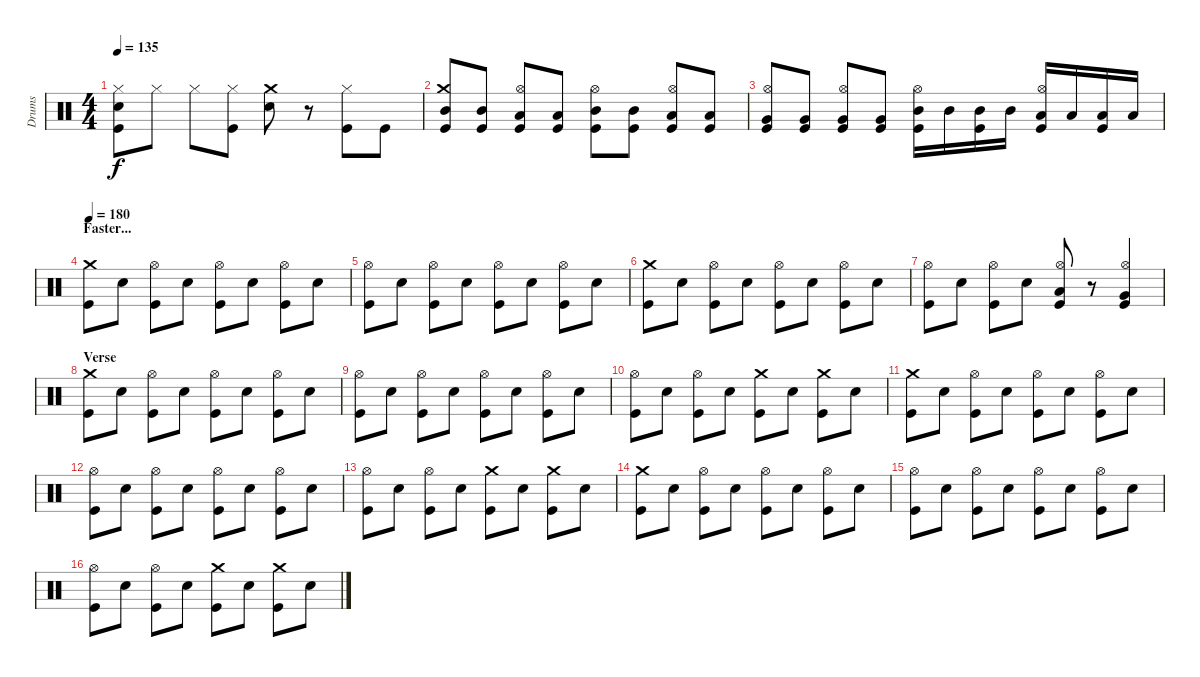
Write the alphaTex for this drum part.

\track ("Drums" "Drums") {instrument percussion}
\staff {score}
\articulation defaults
\ts (4 4)
\tempo 135
\clef neutral
\ks c
("Hi-Hat (closed)" "Snare (hit) 2" "Kick (hit)").8{dy f} "Hi-Hat (closed)".8 "Hi-Hat (closed)".8 ("Hi-Hat (closed)" "Kick (hit)").8 ("Crash medium (hit)" "Snare (hit) 2").8 r.8 ("Hi-Hat (closed)" "Kick (hit)").8 "Kick (hit)".8 |
("Crash medium (hit)" "Mid Tom (hit)" "Kick (hit)").8 ("Mid Tom (hit)" "Kick (hit)").8 ("Hi-Hat (open)" "Low Tom (hit)" "Kick (hit)").8 ("Low Tom (hit)" "Kick (hit)").8 ("Hi-Hat (open)" "Mid Tom (hit)" "Kick (hit)").8 ("Mid Tom (hit)" "Kick (hit)").8 ("Hi-Hat (open)" "Low Tom (hit)" "Kick (hit)").8 ("Low Tom (hit)" "Kick (hit)").8 |
("Hi-Hat (open)" "Very Low Tom (hit)" "Kick (hit)").8 ("Very Low Tom (hit)" "Kick (hit)").8 ("Hi-Hat (open)" "Very Low Tom (hit)" "Kick (hit)").8 ("Very Low Tom (hit)" "Kick (hit)").8 ("Hi-Hat (open)" "Mid Tom (hit)" "Kick (hit)").16 "Mid Tom (hit)".16 ("Mid Tom (hit)" "Kick (hit)").16 "Mid Tom (hit)".16 ("Hi-Hat (open)" "Low Tom (hit)" "Kick (hit)").16 "Low Tom (hit)".16 ("Low Tom (hit)" "Kick (hit)").16 "Low Tom (hit)".16 |
\section ("" "Faster...")
\tempo 180
("Crash medium (hit)" "Kick (hit)").8 "Snare (hit) 2".8 ("Hi-Hat (open)" "Kick (hit)").8 "Snare (hit) 2".8 ("Hi-Hat (open)" "Kick (hit)").8 "Snare (hit) 2".8 ("Hi-Hat (open)" "Kick (hit)").8 "Snare (hit) 2".8 |
("Hi-Hat (open)" "Kick (hit)").8 "Snare (hit) 2".8 ("Hi-Hat (open)" "Kick (hit)").8 "Snare (hit) 2".8 ("Hi-Hat (open)" "Kick (hit)").8 "Snare (hit) 2".8 ("Hi-Hat (open)" "Kick (hit)").8 "Snare (hit) 2".8 |
("Crash medium (hit)" "Kick (hit)").8 "Snare (hit) 2".8 ("Hi-Hat (open)" "Kick (hit)").8 "Snare (hit) 2".8 ("Hi-Hat (open)" "Kick (hit)").8 "Snare (hit) 2".8 ("Hi-Hat (open)" "Kick (hit)").8 "Snare (hit) 2".8 |
("Hi-Hat (open)" "Kick (hit)").8 "Snare (hit) 2".8 ("Hi-Hat (open)" "Kick (hit)").8 "Snare (hit) 2".8 ("Hi-Hat (open)" "Low Tom (hit)" "Kick (hit)").8 r.8 ("Hi-Hat (open)" "Very Low Tom (hit)" "Kick (hit)").4 |
\section ("" "Verse")
("Crash medium (hit)" "Kick (hit)").8 "Snare (hit) 2".8 ("Hi-Hat (open)" "Kick (hit)").8 "Snare (hit) 2".8 ("Hi-Hat (open)" "Kick (hit)").8 "Snare (hit) 2".8 ("Hi-Hat (open)" "Kick (hit)").8 "Snare (hit) 2".8 |
("Hi-Hat (open)" "Kick (hit)").8 "Snare (hit) 2".8 ("Hi-Hat (open)" "Kick (hit)").8 "Snare (hit) 2".8 ("Hi-Hat (open)" "Kick (hit)").8 "Snare (hit) 2".8 ("Hi-Hat (open)" "Kick (hit)").8 "Snare (hit) 2".8 |
("Hi-Hat (open)" "Kick (hit)").8 "Snare (hit) 2".8 ("Hi-Hat (open)" "Kick (hit)").8 "Snare (hit) 2".8 ("Crash medium (hit)" "Kick (hit)").8 "Snare (hit) 2".8 ("Crash medium (hit)" "Kick (hit)").8 "Snare (hit) 2".8 |
("Crash medium (hit)" "Kick (hit)").8 "Snare (hit) 2".8 ("Hi-Hat (open)" "Kick (hit)").8 "Snare (hit) 2".8 ("Hi-Hat (open)" "Kick (hit)").8 "Snare (hit) 2".8 ("Hi-Hat (open)" "Kick (hit)").8 "Snare (hit) 2".8 |
("Hi-Hat (open)" "Kick (hit)").8 "Snare (hit) 2".8 ("Hi-Hat (open)" "Kick (hit)").8 "Snare (hit) 2".8 ("Hi-Hat (open)" "Kick (hit)").8 "Snare (hit) 2".8 ("Hi-Hat (open)" "Kick (hit)").8 "Snare (hit) 2".8 |
("Hi-Hat (open)" "Kick (hit)").8 "Snare (hit) 2".8 ("Hi-Hat (open)" "Kick (hit)").8 "Snare (hit) 2".8 ("Crash medium (hit)" "Kick (hit)").8 "Snare (hit) 2".8 ("Crash medium (hit)" "Kick (hit)").8 "Snare (hit) 2".8 |
("Crash medium (hit)" "Kick (hit)").8 "Snare (hit) 2".8 ("Hi-Hat (open)" "Kick (hit)").8 "Snare (hit) 2".8 ("Hi-Hat (open)" "Kick (hit)").8 "Snare (hit) 2".8 ("Hi-Hat (open)" "Kick (hit)").8 "Snare (hit) 2".8 |
("Hi-Hat (open)" "Kick (hit)").8 "Snare (hit) 2".8 ("Hi-Hat (open)" "Kick (hit)").8 "Snare (hit) 2".8 ("Hi-Hat (open)" "Kick (hit)").8 "Snare (hit) 2".8 ("Hi-Hat (open)" "Kick (hit)").8 "Snare (hit) 2".8 |
("Hi-Hat (open)" "Kick (hit)").8 "Snare (hit) 2".8 ("Hi-Hat (open)" "Kick (hit)").8 "Snare (hit) 2".8 ("Crash medium (hit)" "Kick (hit)").8 "Snare (hit) 2".8 ("Crash medium (hit)" "Kick (hit)").8 "Snare (hit) 2".8
